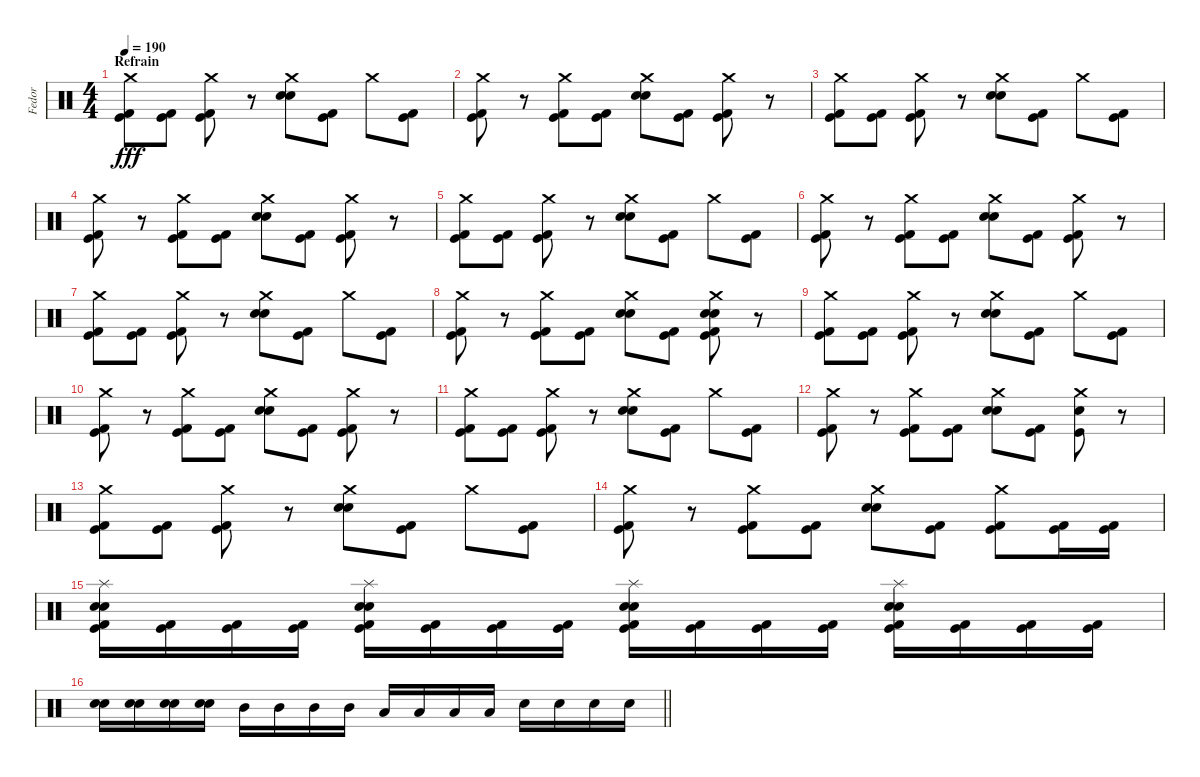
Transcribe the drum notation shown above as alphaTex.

\track ("Fedor" "Fedor") {instrument percussion}
\staff {score}
\articulation defaults
\ts (4 4)
\section ("" "Refrain")
\tempo 190
\clef neutral
\ks c
("Crash medium (hit)" "Kick (hit) 2" "Kick (hit)").8{dy fff} ("Kick (hit) 2" "Kick (hit)").8 ("Crash medium (hit)" "Kick (hit) 2" "Kick (hit)").8 r.8 ("Crash medium (hit)" "Electric Snare (hit)" "Snare (hit) 2").8 ("Kick (hit) 2" "Kick (hit)").8 "Crash medium (hit)".8 ("Kick (hit) 2" "Kick (hit)").8 |
("Crash medium (hit)" "Kick (hit) 2" "Kick (hit)").8 r.8 ("Crash medium (hit)" "Kick (hit) 2" "Kick (hit)").8 ("Kick (hit) 2" "Kick (hit)").8 ("Crash medium (hit)" "Electric Snare (hit)" "Snare (hit) 2").8 ("Kick (hit) 2" "Kick (hit)").8 ("Crash medium (hit)" "Kick (hit) 2" "Kick (hit)").8 r.8 |
("Crash medium (hit)" "Kick (hit) 2" "Kick (hit)").8 ("Kick (hit) 2" "Kick (hit)").8 ("Crash medium (hit)" "Kick (hit) 2" "Kick (hit)").8 r.8 ("Crash medium (hit)" "Electric Snare (hit)" "Snare (hit) 2").8 ("Kick (hit) 2" "Kick (hit)").8 "Crash medium (hit)".8 ("Kick (hit) 2" "Kick (hit)").8 |
("Crash medium (hit)" "Kick (hit) 2" "Kick (hit)").8 r.8 ("Crash medium (hit)" "Kick (hit) 2" "Kick (hit)").8 ("Kick (hit) 2" "Kick (hit)").8 ("Crash medium (hit)" "Electric Snare (hit)" "Snare (hit) 2").8 ("Kick (hit) 2" "Kick (hit)").8 ("Crash medium (hit)" "Kick (hit) 2" "Kick (hit)").8 r.8 |
("Crash medium (hit)" "Kick (hit) 2" "Kick (hit)").8 ("Kick (hit) 2" "Kick (hit)").8 ("Crash medium (hit)" "Kick (hit) 2" "Kick (hit)").8 r.8 ("Crash medium (hit)" "Electric Snare (hit)" "Snare (hit) 2").8 ("Kick (hit) 2" "Kick (hit)").8 "Crash medium (hit)".8 ("Kick (hit) 2" "Kick (hit)").8 |
("Crash medium (hit)" "Kick (hit) 2" "Kick (hit)").8 r.8 ("Crash medium (hit)" "Kick (hit) 2" "Kick (hit)").8 ("Kick (hit) 2" "Kick (hit)").8 ("Crash medium (hit)" "Electric Snare (hit)" "Snare (hit) 2").8 ("Kick (hit) 2" "Kick (hit)").8 ("Crash medium (hit)" "Kick (hit) 2" "Kick (hit)").8 r.8 |
("Crash medium (hit)" "Kick (hit) 2" "Kick (hit)").8 ("Kick (hit) 2" "Kick (hit)").8 ("Crash medium (hit)" "Kick (hit) 2" "Kick (hit)").8 r.8 ("Crash medium (hit)" "Electric Snare (hit)" "Snare (hit) 2").8 ("Kick (hit) 2" "Kick (hit)").8 "Crash medium (hit)".8 ("Kick (hit) 2" "Kick (hit)").8 |
("Crash medium (hit)" "Kick (hit) 2" "Kick (hit)").8 r.8 ("Crash medium (hit)" "Kick (hit) 2" "Kick (hit)").8 ("Kick (hit) 2" "Kick (hit)").8 ("Crash medium (hit)" "Electric Snare (hit)" "Snare (hit) 2").8 ("Kick (hit) 2" "Kick (hit)").8 ("Crash medium (hit)" "Electric Snare (hit)" "Snare (hit) 2" "Kick (hit) 2" "Kick (hit)").8 r.8 |
("Crash medium (hit)" "Kick (hit) 2" "Kick (hit)").8 ("Kick (hit) 2" "Kick (hit)").8 ("Crash medium (hit)" "Kick (hit) 2" "Kick (hit)").8 r.8 ("Crash medium (hit)" "Electric Snare (hit)" "Snare (hit) 2").8 ("Kick (hit) 2" "Kick (hit)").8 "Crash medium (hit)".8 ("Kick (hit) 2" "Kick (hit)").8 |
("Crash medium (hit)" "Kick (hit) 2" "Kick (hit)").8 r.8 ("Crash medium (hit)" "Kick (hit) 2" "Kick (hit)").8 ("Kick (hit) 2" "Kick (hit)").8 ("Crash medium (hit)" "Electric Snare (hit)" "Snare (hit) 2").8 ("Kick (hit) 2" "Kick (hit)").8 ("Crash medium (hit)" "Kick (hit) 2" "Kick (hit)").8 r.8 |
("Crash medium (hit)" "Kick (hit) 2" "Kick (hit)").8 ("Kick (hit) 2" "Kick (hit)").8 ("Crash medium (hit)" "Kick (hit) 2" "Kick (hit)").8 r.8 ("Crash medium (hit)" "Electric Snare (hit)" "Snare (hit) 2").8 ("Kick (hit) 2" "Kick (hit)").8 "Crash medium (hit)".8 ("Kick (hit) 2" "Kick (hit)").8 |
("Crash medium (hit)" "Kick (hit) 2" "Kick (hit)").8 r.8 ("Crash medium (hit)" "Kick (hit) 2" "Kick (hit)").8 ("Kick (hit) 2" "Kick (hit)").8 ("Crash medium (hit)" "Electric Snare (hit)" "Snare (hit) 2").8 ("Kick (hit) 2" "Kick (hit)").8 ("Crash medium (hit)" "Snare (hit) 2" "Kick (hit)").8 r.8 |
("Crash medium (hit)" "Kick (hit) 2" "Kick (hit)").8 ("Kick (hit) 2" "Kick (hit)").8 ("Crash medium (hit)" "Kick (hit) 2" "Kick (hit)").8 r.8 ("Crash medium (hit)" "Electric Snare (hit)" "Snare (hit) 2").8 ("Kick (hit) 2" "Kick (hit)").8 "Crash medium (hit)".8 ("Kick (hit) 2" "Kick (hit)").8 |
("Crash medium (hit)" "Kick (hit) 2" "Kick (hit)").8 r.8 ("Crash medium (hit)" "Kick (hit) 2" "Kick (hit)").8 ("Kick (hit) 2" "Kick (hit)").8 ("Crash medium (hit)" "Electric Snare (hit)" "Snare (hit) 2").8 ("Kick (hit) 2" "Kick (hit)").8 ("Crash medium (hit)" "Kick (hit) 2" "Kick (hit)").8 ("Kick (hit) 2" "Kick (hit)").16 ("Kick (hit) 2" "Kick (hit)").16 |
("Splash (hit)" "Electric Snare (hit)" "Kick (hit) 2" "Snare (hit) 2" "Kick (hit)").16 ("Kick (hit) 2" "Kick (hit)").16 ("Kick (hit) 2" "Kick (hit)").16 ("Kick (hit) 2" "Kick (hit)").16 ("Splash (hit)" "Electric Snare (hit)" "Kick (hit) 2" "Snare (hit) 2" "Kick (hit)").16 ("Kick (hit) 2" "Kick (hit)").16 ("Kick (hit) 2" "Kick (hit)").16 ("Kick (hit) 2" "Kick (hit)").16 ("Splash (hit)" "Electric Snare (hit)" "Snare (hit) 2" "Kick (hit) 2" "Kick (hit)").16 ("Kick (hit) 2" "Kick (hit)").16 ("Kick (hit) 2" "Kick (hit)").16 ("Kick (hit) 2" "Kick (hit)").16 ("Splash (hit)" "Electric Snare (hit)" "Snare (hit) 2" "Kick (hit) 2" "Kick (hit)").16 ("Kick (hit) 2" "Kick (hit)").16 ("Kick (hit) 2" "Kick (hit)").16 ("Kick (hit) 2" "Kick (hit)").16 |
\barLineRight lightlight
("Electric Snare (hit)" "Snare (hit) 2").16 ("Electric Snare (hit)" "Snare (hit) 2").16 ("Electric Snare (hit)" "Snare (hit) 2").16 ("Electric Snare (hit)" "Snare (hit) 2").16 "Mid Tom (hit)".16 "Mid Tom (hit)".16 "Mid Tom (hit)".16 "Mid Tom (hit)".16 "Low Tom (hit)".16 "Low Tom (hit)".16 "Low Tom (hit)".16 "Low Tom (hit)".16 "Electric Snare (hit)".16 "Electric Snare (hit)".16 "Electric Snare (hit)".16 "Electric Snare (hit)".16
